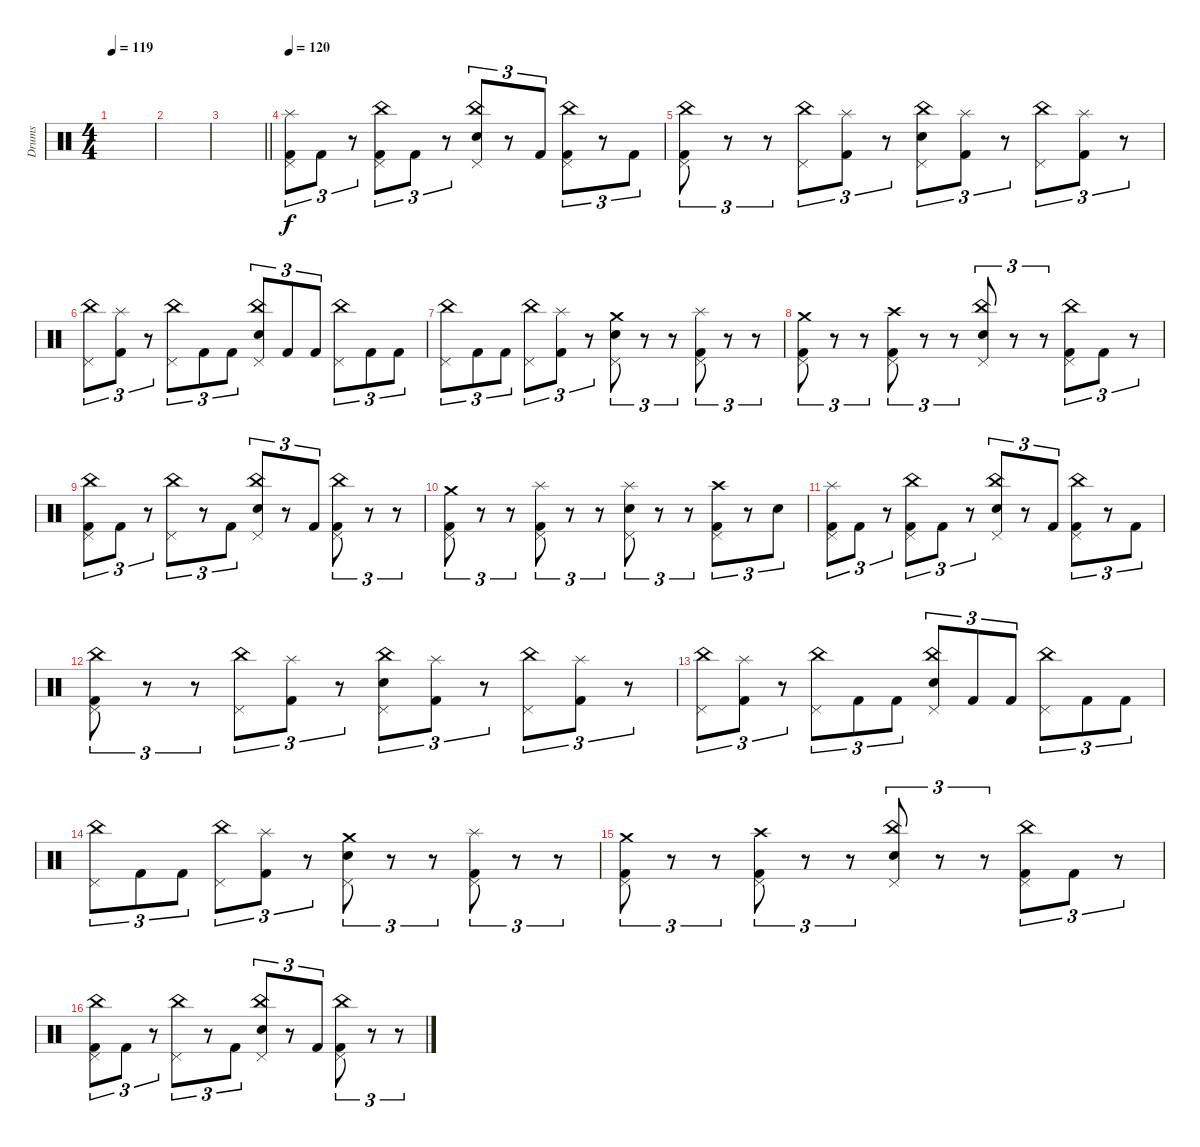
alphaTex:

\track ("Drums" "Drums") {instrument percussion}
\staff {score}
\articulation defaults
\ts (4 4)
\tempo 119
\clef neutral
\ks c
|
|
\barLineRight lightlight
|
\section ("" "")
\tempo 120
("Splash (hit)" "Pedal Hi-Hat (hit)" "Kick (hit) 2").8{tu (3 2)} "Kick (hit) 2".8{tu (3 2)} r.8{tu (3 2)} ("China (hit)" "Pedal Hi-Hat (hit)" "Kick (hit) 2").8{tu (3 2)} "Kick (hit) 2".8{tu (3 2)} r.8{tu (3 2)} ("China (hit)" "Pedal Hi-Hat (hit)" "Electric Snare (hit)").8{tu (3 2)} r.8{tu (3 2)} "Kick (hit) 2".8{tu (3 2)} ("China (hit)" "Pedal Hi-Hat (hit)" "Kick (hit) 2").8{tu (3 2)} r.8{tu (3 2)} "Kick (hit) 2".8{tu (3 2)} |
("China (hit)" "Pedal Hi-Hat (hit)" "Kick (hit) 2").8{tu (3 2)} r.8{tu (3 2)} r.8{tu (3 2)} ("China (hit)" "Pedal Hi-Hat (hit)").8{tu (3 2)} ("Splash (hit)" "Kick (hit) 2").8{tu (3 2)} r.8{tu (3 2)} ("China (hit)" "Pedal Hi-Hat (hit)" "Electric Snare (hit)").8{tu (3 2)} ("Splash (hit)" "Kick (hit) 2").8{tu (3 2)} r.8{tu (3 2)} ("China (hit)" "Pedal Hi-Hat (hit)").8{tu (3 2)} ("Splash (hit)" "Kick (hit) 2").8{tu (3 2)} r.8{tu (3 2)} |
("China (hit)" "Pedal Hi-Hat (hit)").8{tu (3 2)} ("Splash (hit)" "Kick (hit) 2").8{tu (3 2)} r.8{tu (3 2)} ("China (hit)" "Pedal Hi-Hat (hit)").8{tu (3 2)} "Kick (hit) 2".8{tu (3 2)} "Kick (hit) 2".8{tu (3 2)} ("China (hit)" "Pedal Hi-Hat (hit)" "Electric Snare (hit)").8{tu (3 2)} "Kick (hit) 2".8{tu (3 2)} "Kick (hit) 2".8{tu (3 2)} ("China (hit)" "Pedal Hi-Hat (hit)").8{tu (3 2)} "Kick (hit) 2".8{tu (3 2)} "Kick (hit) 2".8{tu (3 2)} |
("China (hit)" "Pedal Hi-Hat (hit)").8{tu (3 2)} "Kick (hit) 2".8{tu (3 2)} "Kick (hit) 2".8{tu (3 2)} ("China (hit)" "Pedal Hi-Hat (hit)").8{tu (3 2)} ("Splash (hit)" "Kick (hit) 2").8{tu (3 2)} r.8{tu (3 2)} ("Crash medium (hit)" "Pedal Hi-Hat (hit)" "Electric Snare (hit)").8{tu (3 2)} r.8{tu (3 2)} r.8{tu (3 2)} ("Splash (hit)" "Pedal Hi-Hat (hit)" "Kick (hit) 2").8{tu (3 2)} r.8{tu (3 2)} r.8{tu (3 2)} |
("Crash medium (hit)" "Pedal Hi-Hat (hit)" "Kick (hit) 2").8{tu (3 2)} r.8{tu (3 2)} r.8{tu (3 2)} ("Crash high (hit)" "Pedal Hi-Hat (hit)" "Kick (hit) 2").8{tu (3 2)} r.8{tu (3 2)} r.8{tu (3 2)} ("China (hit)" "Pedal Hi-Hat (hit)" "Electric Snare (hit)").8{tu (3 2)} r.8{tu (3 2)} r.8{tu (3 2)} ("China (hit)" "Pedal Hi-Hat (hit)" "Kick (hit) 2").8{tu (3 2)} "Kick (hit) 2".8{tu (3 2)} r.8{tu (3 2)} |
("China (hit)" "Pedal Hi-Hat (hit)" "Kick (hit) 2").8{tu (3 2)} "Kick (hit) 2".8{tu (3 2)} r.8{tu (3 2)} ("China (hit)" "Pedal Hi-Hat (hit)").8{tu (3 2)} r.8{tu (3 2)} "Kick (hit) 2".8{tu (3 2)} ("China (hit)" "Pedal Hi-Hat (hit)" "Electric Snare (hit)").8{tu (3 2)} r.8{tu (3 2)} "Kick (hit) 2".8{tu (3 2)} ("China (hit)" "Pedal Hi-Hat (hit)" "Kick (hit) 2").8{tu (3 2)} r.8{tu (3 2)} r.8{tu (3 2)} |
("Crash medium (hit)" "Pedal Hi-Hat (hit)" "Kick (hit) 2").8{tu (3 2)} r.8{tu (3 2)} r.8{tu (3 2)} ("Splash (hit)" "Pedal Hi-Hat (hit)" "Kick (hit) 2").8{tu (3 2)} r.8{tu (3 2)} r.8{tu (3 2)} ("Splash (hit)" "Pedal Hi-Hat (hit)" "Electric Snare (hit)").8{tu (3 2)} r.8{tu (3 2)} r.8{tu (3 2)} ("Crash high (hit)" "Pedal Hi-Hat (hit)" "Kick (hit) 2").8{tu (3 2)} r.8{tu (3 2)} "Electric Snare (hit)".8{tu (3 2)} |
("Splash (hit)" "Pedal Hi-Hat (hit)" "Kick (hit) 2").8{tu (3 2)} "Kick (hit) 2".8{tu (3 2)} r.8{tu (3 2)} ("China (hit)" "Pedal Hi-Hat (hit)" "Kick (hit) 2").8{tu (3 2)} "Kick (hit) 2".8{tu (3 2)} r.8{tu (3 2)} ("China (hit)" "Pedal Hi-Hat (hit)" "Electric Snare (hit)").8{tu (3 2)} r.8{tu (3 2)} "Kick (hit) 2".8{tu (3 2)} ("China (hit)" "Pedal Hi-Hat (hit)" "Kick (hit) 2").8{tu (3 2)} r.8{tu (3 2)} "Kick (hit) 2".8{tu (3 2)} |
("China (hit)" "Pedal Hi-Hat (hit)" "Kick (hit) 2").8{tu (3 2)} r.8{tu (3 2)} r.8{tu (3 2)} ("China (hit)" "Pedal Hi-Hat (hit)").8{tu (3 2)} ("Splash (hit)" "Kick (hit) 2").8{tu (3 2)} r.8{tu (3 2)} ("China (hit)" "Pedal Hi-Hat (hit)" "Electric Snare (hit)").8{tu (3 2)} ("Splash (hit)" "Kick (hit) 2").8{tu (3 2)} r.8{tu (3 2)} ("China (hit)" "Pedal Hi-Hat (hit)").8{tu (3 2)} ("Splash (hit)" "Kick (hit) 2").8{tu (3 2)} r.8{tu (3 2)} |
("China (hit)" "Pedal Hi-Hat (hit)").8{tu (3 2)} ("Splash (hit)" "Kick (hit) 2").8{tu (3 2)} r.8{tu (3 2)} ("China (hit)" "Pedal Hi-Hat (hit)").8{tu (3 2)} "Kick (hit) 2".8{tu (3 2)} "Kick (hit) 2".8{tu (3 2)} ("China (hit)" "Pedal Hi-Hat (hit)" "Electric Snare (hit)").8{tu (3 2)} "Kick (hit) 2".8{tu (3 2)} "Kick (hit) 2".8{tu (3 2)} ("China (hit)" "Pedal Hi-Hat (hit)").8{tu (3 2)} "Kick (hit) 2".8{tu (3 2)} "Kick (hit) 2".8{tu (3 2)} |
("China (hit)" "Pedal Hi-Hat (hit)").8{tu (3 2)} "Kick (hit) 2".8{tu (3 2)} "Kick (hit) 2".8{tu (3 2)} ("China (hit)" "Pedal Hi-Hat (hit)").8{tu (3 2)} ("Splash (hit)" "Kick (hit) 2").8{tu (3 2)} r.8{tu (3 2)} ("Crash medium (hit)" "Pedal Hi-Hat (hit)" "Electric Snare (hit)").8{tu (3 2)} r.8{tu (3 2)} r.8{tu (3 2)} ("Splash (hit)" "Pedal Hi-Hat (hit)" "Kick (hit) 2").8{tu (3 2)} r.8{tu (3 2)} r.8{tu (3 2)} |
("Crash medium (hit)" "Pedal Hi-Hat (hit)" "Kick (hit) 2").8{tu (3 2)} r.8{tu (3 2)} r.8{tu (3 2)} ("Crash high (hit)" "Pedal Hi-Hat (hit)" "Kick (hit) 2").8{tu (3 2)} r.8{tu (3 2)} r.8{tu (3 2)} ("China (hit)" "Pedal Hi-Hat (hit)" "Electric Snare (hit)").8{tu (3 2)} r.8{tu (3 2)} r.8{tu (3 2)} ("China (hit)" "Pedal Hi-Hat (hit)" "Kick (hit) 2").8{tu (3 2)} "Kick (hit) 2".8{tu (3 2)} r.8{tu (3 2)} |
("China (hit)" "Pedal Hi-Hat (hit)" "Kick (hit) 2").8{tu (3 2)} "Kick (hit) 2".8{tu (3 2)} r.8{tu (3 2)} ("China (hit)" "Pedal Hi-Hat (hit)").8{tu (3 2)} r.8{tu (3 2)} "Kick (hit) 2".8{tu (3 2)} ("China (hit)" "Pedal Hi-Hat (hit)" "Electric Snare (hit)").8{tu (3 2)} r.8{tu (3 2)} "Kick (hit) 2".8{tu (3 2)} ("China (hit)" "Pedal Hi-Hat (hit)" "Kick (hit) 2").8{tu (3 2)} r.8{tu (3 2)} r.8{tu (3 2)}
